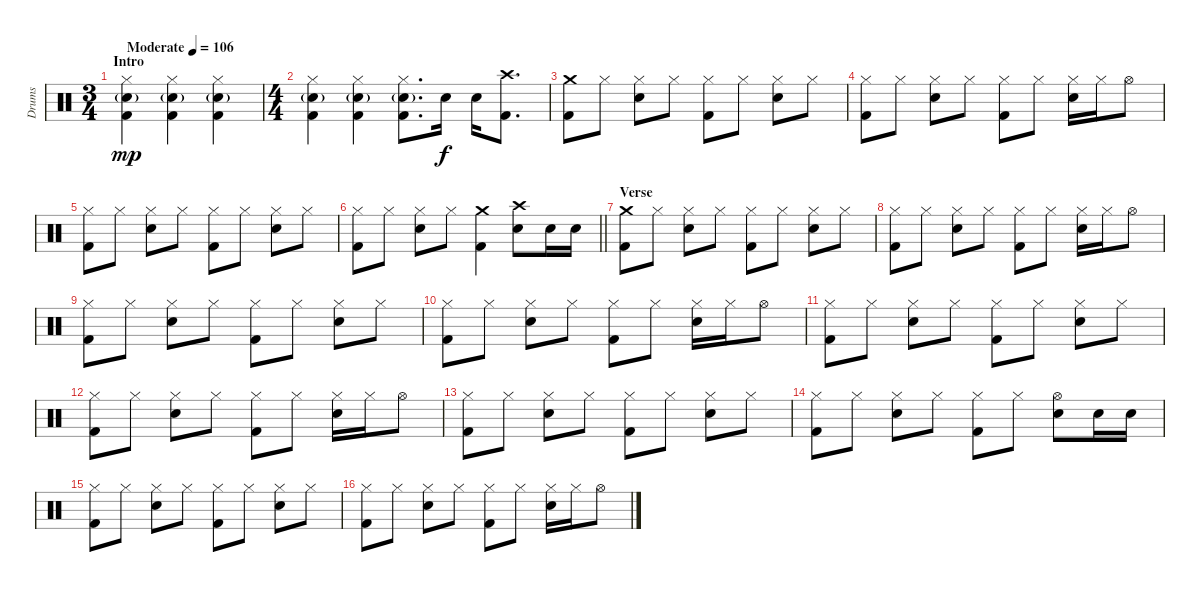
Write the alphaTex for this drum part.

\track ("Drums" "Drums") {instrument percussion}
\staff {score}
\articulation defaults
\ts (3 4)
\section ("" "Intro")
\tempo (106 "Moderate")
\clef neutral
\ks c
("Hi-Hat (closed)" "Electric Snare (hit)"{g} "Kick (hit) 2").4{dy mp} ("Hi-Hat (closed)" "Electric Snare (hit)"{g} "Kick (hit) 2").4 ("Hi-Hat (closed)" "Electric Snare (hit)"{g} "Kick (hit) 2").4 |
\ts (4 4)
("Hi-Hat (closed)" "Electric Snare (hit)"{g} "Kick (hit) 2").4 ("Hi-Hat (closed)" "Electric Snare (hit)"{g} "Kick (hit) 2").4 ("Hi-Hat (closed)" "Electric Snare (hit)"{g} "Kick (hit) 2").8{d} "Electric Snare (hit)".16{dy f} "Electric Snare (hit)".16 ("Crash high (hit)" "Kick (hit) 2").8{d} |
("Crash medium (hit)" "Kick (hit) 2").8 "Hi-Hat (closed)".8 ("Hi-Hat (closed)" "Electric Snare (hit)").8 "Hi-Hat (closed)".8 ("Hi-Hat (closed)" "Kick (hit) 2").8 "Hi-Hat (closed)".8 ("Hi-Hat (closed)" "Electric Snare (hit)").8 "Hi-Hat (closed)".8 |
("Hi-Hat (closed)" "Kick (hit) 2").8 "Hi-Hat (closed)".8 ("Hi-Hat (closed)" "Electric Snare (hit)").8 "Hi-Hat (closed)".8 ("Hi-Hat (closed)" "Kick (hit) 2").8 "Hi-Hat (closed)".8 ("Hi-Hat (closed)" "Electric Snare (hit)").16 "Hi-Hat (closed)".16 "Hi-Hat (open)".8 |
("Hi-Hat (closed)" "Kick (hit) 2").8 "Hi-Hat (closed)".8 ("Hi-Hat (closed)" "Electric Snare (hit)").8 "Hi-Hat (closed)".8 ("Hi-Hat (closed)" "Kick (hit) 2").8 "Hi-Hat (closed)".8 ("Hi-Hat (closed)" "Electric Snare (hit)").8 "Hi-Hat (closed)".8 |
\barLineRight lightlight
("Hi-Hat (closed)" "Kick (hit) 2").8 "Hi-Hat (closed)".8 ("Hi-Hat (closed)" "Electric Snare (hit)").8 "Hi-Hat (closed)".8 ("Crash medium (hit)" "Kick (hit) 2").4 ("Crash high (hit)" "Electric Snare (hit)").8 "Electric Snare (hit)".16 "Electric Snare (hit)".16 |
\section ("" "Verse")
("Crash medium (hit)" "Kick (hit) 2").8 "Hi-Hat (closed)".8 ("Hi-Hat (closed)" "Electric Snare (hit)").8 "Hi-Hat (closed)".8 ("Hi-Hat (closed)" "Kick (hit) 2").8 "Hi-Hat (closed)".8 ("Hi-Hat (closed)" "Electric Snare (hit)").8 "Hi-Hat (closed)".8 |
("Hi-Hat (closed)" "Kick (hit) 2").8 "Hi-Hat (closed)".8 ("Hi-Hat (closed)" "Electric Snare (hit)").8 "Hi-Hat (closed)".8 ("Hi-Hat (closed)" "Kick (hit) 2").8 "Hi-Hat (closed)".8 ("Hi-Hat (closed)" "Electric Snare (hit)").16 "Hi-Hat (closed)".16 "Hi-Hat (open)".8 |
("Hi-Hat (closed)" "Kick (hit) 2").8 "Hi-Hat (closed)".8 ("Hi-Hat (closed)" "Electric Snare (hit)").8 "Hi-Hat (closed)".8 ("Hi-Hat (closed)" "Kick (hit) 2").8 "Hi-Hat (closed)".8 ("Hi-Hat (closed)" "Electric Snare (hit)").8 "Hi-Hat (closed)".8 |
("Hi-Hat (closed)" "Kick (hit) 2").8 "Hi-Hat (closed)".8 ("Hi-Hat (closed)" "Electric Snare (hit)").8 "Hi-Hat (closed)".8 ("Hi-Hat (closed)" "Kick (hit) 2").8 "Hi-Hat (closed)".8 ("Hi-Hat (closed)" "Electric Snare (hit)").16 "Hi-Hat (closed)".16 "Hi-Hat (open)".8 |
("Hi-Hat (closed)" "Kick (hit) 2").8 "Hi-Hat (closed)".8 ("Hi-Hat (closed)" "Electric Snare (hit)").8 "Hi-Hat (closed)".8 ("Hi-Hat (closed)" "Kick (hit) 2").8 "Hi-Hat (closed)".8 ("Hi-Hat (closed)" "Electric Snare (hit)").8 "Hi-Hat (closed)".8 |
("Hi-Hat (closed)" "Kick (hit) 2").8 "Hi-Hat (closed)".8 ("Hi-Hat (closed)" "Electric Snare (hit)").8 "Hi-Hat (closed)".8 ("Hi-Hat (closed)" "Kick (hit) 2").8 "Hi-Hat (closed)".8 ("Hi-Hat (closed)" "Electric Snare (hit)").16 "Hi-Hat (closed)".16 "Hi-Hat (open)".8 |
("Hi-Hat (closed)" "Kick (hit) 2").8 "Hi-Hat (closed)".8 ("Hi-Hat (closed)" "Electric Snare (hit)").8 "Hi-Hat (closed)".8 ("Hi-Hat (closed)" "Kick (hit) 2").8 "Hi-Hat (closed)".8 ("Hi-Hat (closed)" "Electric Snare (hit)").8 "Hi-Hat (closed)".8 |
("Hi-Hat (closed)" "Kick (hit) 2").8 "Hi-Hat (closed)".8 ("Hi-Hat (closed)" "Electric Snare (hit)").8 "Hi-Hat (closed)".8 ("Hi-Hat (closed)" "Kick (hit) 2").8 "Hi-Hat (closed)".8 ("Hi-Hat (open)" "Electric Snare (hit)").8 "Electric Snare (hit)".16 "Electric Snare (hit)".16 |
("Hi-Hat (closed)" "Kick (hit) 2").8 "Hi-Hat (closed)".8 ("Hi-Hat (closed)" "Electric Snare (hit)").8 "Hi-Hat (closed)".8 ("Hi-Hat (closed)" "Kick (hit) 2").8 "Hi-Hat (closed)".8 ("Hi-Hat (closed)" "Electric Snare (hit)").8 "Hi-Hat (closed)".8 |
("Hi-Hat (closed)" "Kick (hit) 2").8 "Hi-Hat (closed)".8 ("Hi-Hat (closed)" "Electric Snare (hit)").8 "Hi-Hat (closed)".8 ("Hi-Hat (closed)" "Kick (hit) 2").8 "Hi-Hat (closed)".8 ("Hi-Hat (closed)" "Electric Snare (hit)").16 "Hi-Hat (closed)".16 "Hi-Hat (open)".8
